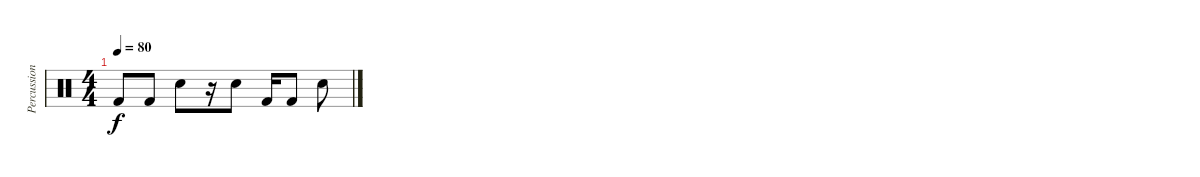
\track ("Percussion" "Percussion") {instrument percussion}
\staff {score}
\articulation defaults
\ts (4 4)
\tempo 80
\clef neutral
\ks c "Kick (hit) 2".8{dy f} "Kick (hit) 2".8 "Electric Snare (hit)".8
r.16 "Electric Snare (hit)".8 "Kick (hit) 2".16 "Kick (hit) 2".8 "Electric Snare (hit)".8
